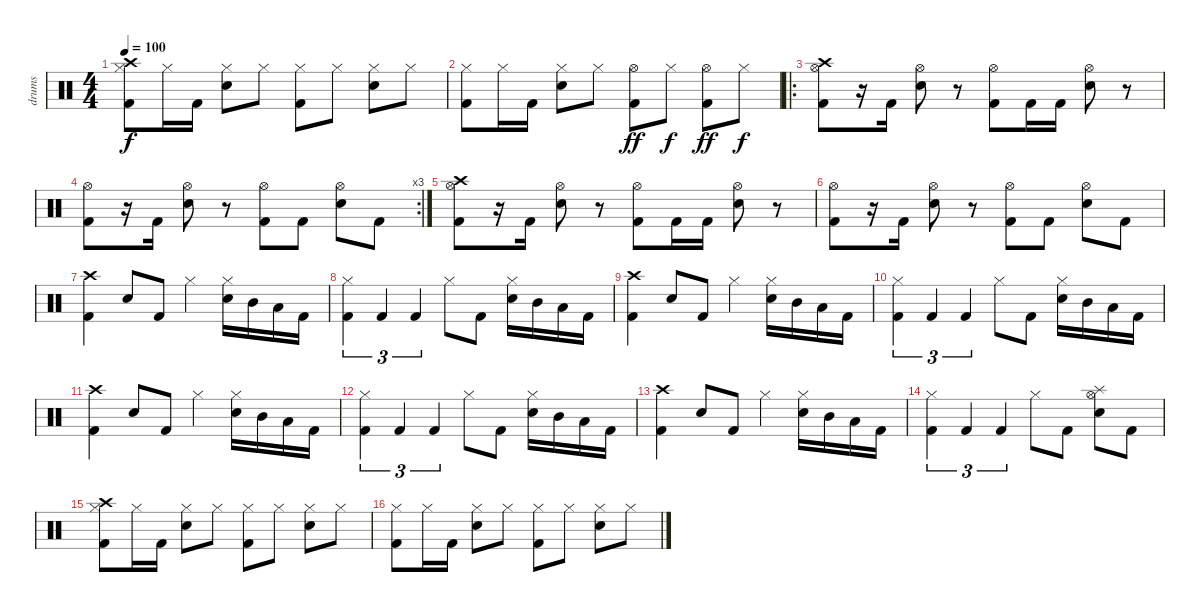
\track ("drums" "drums") {instrument percussion}
\staff {score}
\articulation defaults
\ts (4 4)
\tempo 100
\clef neutral
\ks c
("Crash high (hit)" "Hi-Hat (closed)" "Kick (hit) 2").8{dy f} "Hi-Hat (closed)".16 "Kick (hit) 2".16 ("Hi-Hat (closed)" "Snare (hit) 2").8 "Hi-Hat (closed)".8 ("Hi-Hat (closed)" "Kick (hit) 2").8 "Hi-Hat (closed)".8 ("Hi-Hat (closed)" "Snare (hit) 2").8 "Hi-Hat (closed)".8 |
("Hi-Hat (closed)" "Kick (hit) 2").8 "Hi-Hat (closed)".16 "Kick (hit) 2".16 ("Hi-Hat (closed)" "Snare (hit) 2").8 "Hi-Hat (closed)".8 ("Hi-Hat (open)" "Kick (hit) 2").8{dy ff} "Hi-Hat (closed)".8{dy f} ("Hi-Hat (open)" "Kick (hit) 2").8{dy ff} "Hi-Hat (closed)".8{dy f} |
\ro
("Crash high (hit)" "Hi-Hat (open)" "Kick (hit) 2").8 r.16 "Kick (hit) 2".16 ("Hi-Hat (open)" "Snare (hit) 2").8 r.8 ("Hi-Hat (open)" "Kick (hit) 2").8 "Kick (hit) 2".16 "Kick (hit) 2".16 ("Hi-Hat (open)" "Snare (hit) 2").8 r.8 |
\rc 3
("Hi-Hat (open)" "Kick (hit) 2").8 r.16 "Kick (hit) 2".16 ("Hi-Hat (open)" "Snare (hit) 2").8 r.8 ("Hi-Hat (open)" "Kick (hit) 2").8 "Kick (hit) 2".8 ("Hi-Hat (open)" "Snare (hit) 2").8 "Kick (hit) 2".8 |
("Crash high (hit)" "Hi-Hat (open)" "Kick (hit) 2").8 r.16 "Kick (hit) 2".16 ("Hi-Hat (open)" "Snare (hit) 2").8 r.8 ("Hi-Hat (open)" "Kick (hit) 2").8 "Kick (hit) 2".16 "Kick (hit) 2".16 ("Hi-Hat (open)" "Snare (hit) 2").8 r.8 |
("Hi-Hat (open)" "Kick (hit) 2").8 r.16 "Kick (hit) 2".16 ("Hi-Hat (open)" "Snare (hit) 2").8 r.8 ("Hi-Hat (open)" "Kick (hit) 2").8 "Kick (hit) 2".8 ("Hi-Hat (open)" "Snare (hit) 2").8 "Kick (hit) 2".8 |
("Crash high (hit)" "Kick (hit) 2").4 "Snare (hit) 2".8 "Kick (hit) 2".8 "Hi-Hat (closed)".4 ("Hi-Hat (closed)" "Snare (hit) 2").16 "Mid Tom (hit)".16 "Low Tom (hit)".16 "Kick (hit) 2".16 |
("Hi-Hat (closed)" "Kick (hit) 2").4{tu (3 2)} "Kick (hit) 2".4{tu (3 2)} "Kick (hit) 2".4{tu (3 2)} "Hi-Hat (closed)".8 "Kick (hit) 2".8 ("Hi-Hat (closed)" "Snare (hit) 2").16 "Mid Tom (hit)".16 "Low Tom (hit)".16 "Kick (hit) 2".16 |
("Crash high (hit)" "Kick (hit) 2").4 "Snare (hit) 2".8 "Kick (hit) 2".8 "Hi-Hat (closed)".4 ("Hi-Hat (closed)" "Snare (hit) 2").16 "Mid Tom (hit)".16 "Low Tom (hit)".16 "Kick (hit) 2".16 |
("Hi-Hat (closed)" "Kick (hit) 2").4{tu (3 2)} "Kick (hit) 2".4{tu (3 2)} "Kick (hit) 2".4{tu (3 2)} "Hi-Hat (closed)".8 "Kick (hit) 2".8 ("Hi-Hat (closed)" "Snare (hit) 2").16 "Mid Tom (hit)".16 "Low Tom (hit)".16 "Kick (hit) 2".16 |
("Crash high (hit)" "Kick (hit) 2").4 "Snare (hit) 2".8 "Kick (hit) 2".8 "Hi-Hat (closed)".4 ("Hi-Hat (closed)" "Snare (hit) 2").16 "Mid Tom (hit)".16 "Low Tom (hit)".16 "Kick (hit) 2".16 |
("Hi-Hat (closed)" "Kick (hit) 2").4{tu (3 2)} "Kick (hit) 2".4{tu (3 2)} "Kick (hit) 2".4{tu (3 2)} "Hi-Hat (closed)".8 "Kick (hit) 2".8 ("Hi-Hat (closed)" "Snare (hit) 2").16 "Mid Tom (hit)".16 "Low Tom (hit)".16 "Kick (hit) 2".16 |
("Crash high (hit)" "Kick (hit) 2").4 "Snare (hit) 2".8 "Kick (hit) 2".8 "Hi-Hat (closed)".4 ("Hi-Hat (closed)" "Snare (hit) 2").16 "Mid Tom (hit)".16 "Low Tom (hit)".16 "Kick (hit) 2".16 |
("Hi-Hat (closed)" "Kick (hit) 2").4{tu (3 2)} "Kick (hit) 2".4{tu (3 2)} "Kick (hit) 2".4{tu (3 2)} "Hi-Hat (closed)".8 "Kick (hit) 2".8 ("Splash (hit)" "Hi-Hat (open)" "Snare (hit) 2").8 "Kick (hit) 2".8 |
("Crash high (hit)" "Hi-Hat (closed)" "Kick (hit) 2").8 "Hi-Hat (closed)".16 "Kick (hit) 2".16 ("Hi-Hat (closed)" "Snare (hit) 2").8 "Hi-Hat (closed)".8 ("Hi-Hat (closed)" "Kick (hit) 2").8 "Hi-Hat (closed)".8 ("Hi-Hat (closed)" "Snare (hit) 2").8 "Hi-Hat (closed)".8 |
("Hi-Hat (closed)" "Kick (hit) 2").8 "Hi-Hat (closed)".16 "Kick (hit) 2".16 ("Hi-Hat (closed)" "Snare (hit) 2").8 "Hi-Hat (closed)".8 ("Hi-Hat (closed)" "Kick (hit) 2").8 "Hi-Hat (closed)".8 ("Hi-Hat (closed)" "Snare (hit) 2").8 "Hi-Hat (closed)".8
